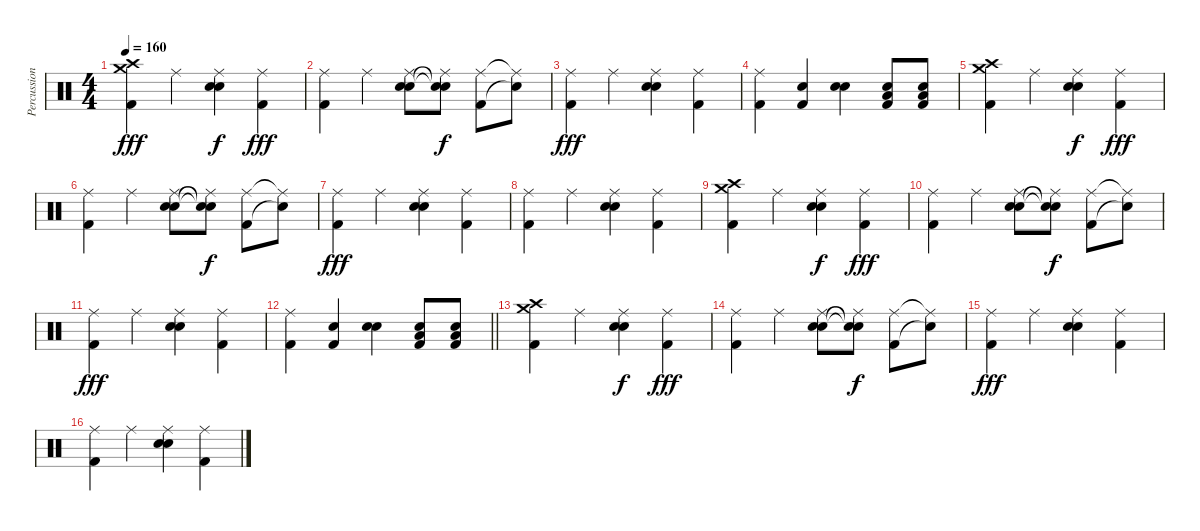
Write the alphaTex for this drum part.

\track ("Percussion" "Percussion") {instrument percussion}
\staff {score}
\articulation defaults
\ts (4 4)
\tempo 160
\clef neutral
\ks c
("Crash high (hit)" "Kick (hit) 2" "Crash medium (hit)").4{dy fff} "Ride (middle)".4 ("Ride (middle)" "Snare (hit) 2" "Electric Snare (hit)").4{dy f} ("Ride (middle)" "Kick (hit) 2").4{dy fff} |
("Kick (hit) 2" "Ride (middle)").4 "Ride (middle)".4 ("Snare (hit) 2" "Electric Snare (hit)" "Ride (middle)").8 ("Ride (middle)"{t} "Snare (hit)"{t} "Snare (hit)"{t}).8{dy f} ("Ride (middle)" "Kick (hit) 2").8 ("Ride (middle)"{t} "Snare (hit)"{t}).8 |
("Kick (hit) 2" "Ride (middle)").4{dy fff} "Ride (middle)".4 ("Snare (hit) 2" "Electric Snare (hit)" "Ride (middle)").4 ("Kick (hit) 2" "Ride (middle)").4 |
("Kick (hit) 2" "Ride (middle)").4 ("Kick (hit) 2" "Snare (hit) 2").4 ("Snare (hit) 2" "Snare (hit) 2").4 ("Kick (hit) 2" "Snare (hit) 2" "Low Floor Tom (hit)").8 ("Kick (hit) 2" "Snare (hit) 2" "Low Floor Tom (hit)").8 |
("Crash high (hit)" "Kick (hit) 2" "Crash medium (hit)").4 "Ride (middle)".4 ("Ride (middle)" "Snare (hit) 2" "Electric Snare (hit)").4{dy f} ("Ride (middle)" "Kick (hit) 2").4{dy fff} |
("Kick (hit) 2" "Ride (middle)").4 "Ride (middle)".4 ("Snare (hit) 2" "Electric Snare (hit)" "Ride (middle)").8 ("Ride (middle)"{t} "Snare (hit)"{t} "Snare (hit)"{t}).8{dy f} ("Ride (middle)" "Kick (hit) 2").8 ("Ride (middle)"{t} "Snare (hit)"{t}).8 |
("Kick (hit) 2" "Ride (middle)").4{dy fff} "Ride (middle)".4 ("Snare (hit) 2" "Electric Snare (hit)" "Ride (middle)").4 ("Kick (hit) 2" "Ride (middle)").4 |
("Kick (hit) 2" "Ride (middle)").4 "Ride (middle)".4 ("Snare (hit) 2" "Electric Snare (hit)" "Ride (middle)").4 ("Kick (hit) 2" "Ride (middle)").4 |
("Crash high (hit)" "Kick (hit) 2" "Crash medium (hit)").4 "Ride (middle)".4 ("Ride (middle)" "Snare (hit) 2" "Electric Snare (hit)").4{dy f} ("Ride (middle)" "Kick (hit) 2").4{dy fff} |
("Kick (hit) 2" "Ride (middle)").4 "Ride (middle)".4 ("Snare (hit) 2" "Electric Snare (hit)" "Ride (middle)").8 ("Ride (middle)"{t} "Snare (hit)"{t} "Snare (hit)"{t}).8{dy f} ("Ride (middle)" "Kick (hit) 2").8 ("Ride (middle)"{t} "Snare (hit)"{t}).8 |
("Kick (hit) 2" "Ride (middle)").4{dy fff} "Ride (middle)".4 ("Snare (hit) 2" "Electric Snare (hit)" "Ride (middle)").4 ("Kick (hit) 2" "Ride (middle)").4 |
\barLineRight lightlight
("Kick (hit) 2" "Ride (middle)").4 ("Kick (hit) 2" "Snare (hit) 2").4 ("Snare (hit) 2" "Snare (hit) 2").4 ("Kick (hit) 2" "Snare (hit) 2" "Low Floor Tom (hit)").8 ("Kick (hit) 2" "Snare (hit) 2" "Low Floor Tom (hit)").8 |
("Crash high (hit)" "Kick (hit) 2" "Crash medium (hit)").4 "Ride (middle)".4 ("Ride (middle)" "Snare (hit) 2" "Electric Snare (hit)").4{dy f} ("Ride (middle)" "Kick (hit) 2").4{dy fff} |
("Kick (hit) 2" "Ride (middle)").4 "Ride (middle)".4 ("Snare (hit) 2" "Electric Snare (hit)" "Ride (middle)").8 ("Ride (middle)"{t} "Snare (hit)"{t} "Snare (hit)"{t}).8{dy f} ("Ride (middle)" "Kick (hit) 2").8 ("Ride (middle)"{t} "Snare (hit)"{t}).8 |
("Kick (hit) 2" "Ride (middle)").4{dy fff} "Ride (middle)".4 ("Snare (hit) 2" "Electric Snare (hit)" "Ride (middle)").4 ("Kick (hit) 2" "Ride (middle)").4 |
("Kick (hit) 2" "Ride (middle)").4 "Ride (middle)".4 ("Snare (hit) 2" "Electric Snare (hit)" "Ride (middle)").4 ("Kick (hit) 2" "Ride (middle)").4
